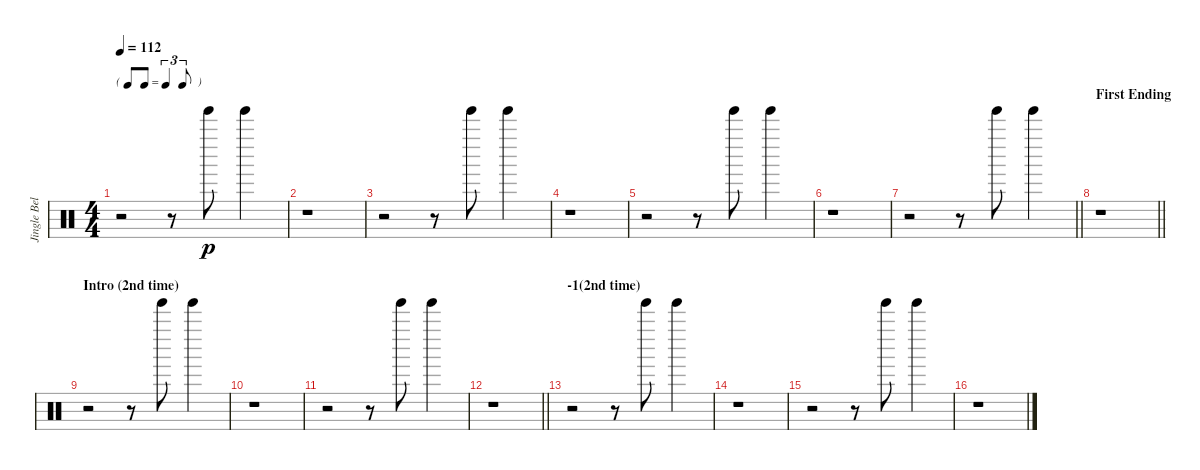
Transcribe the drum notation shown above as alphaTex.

\track ("Jingle Bell" "Jingle Bel") {instrument percussion}
\staff {score}
\articulation defaults
\ts (4 4)
\tf triplet8th
\tempo 112
\clef neutral
\ks c
r.2{dy p} r.8 "Tinkle Bell (hit)".8 "Tinkle Bell (hit)".4 |
r.1 |
r.2 r.8 "Tinkle Bell (hit)".8 "Tinkle Bell (hit)".4 |
r.1 |
r.2 r.8 "Tinkle Bell (hit)".8 "Tinkle Bell (hit)".4 |
r.1 |
\barLineRight lightlight
r.2 r.8 "Tinkle Bell (hit)".8 "Tinkle Bell (hit)".4 |
\section ("" "First Ending")
\barLineRight lightlight
r.1 |
\section ("" "Intro (2nd time)")
r.2 r.8 "Tinkle Bell (hit)".8 "Tinkle Bell (hit)".4 |
r.1 |
r.2 r.8 "Tinkle Bell (hit)".8 "Tinkle Bell (hit)".4 |
\barLineRight lightlight
r.1 |
\section ("" "-1(2nd time)")
r.2 r.8 "Tinkle Bell (hit)".8 "Tinkle Bell (hit)".4 |
r.1 |
r.2 r.8 "Tinkle Bell (hit)".8 "Tinkle Bell (hit)".4 |
r.1
